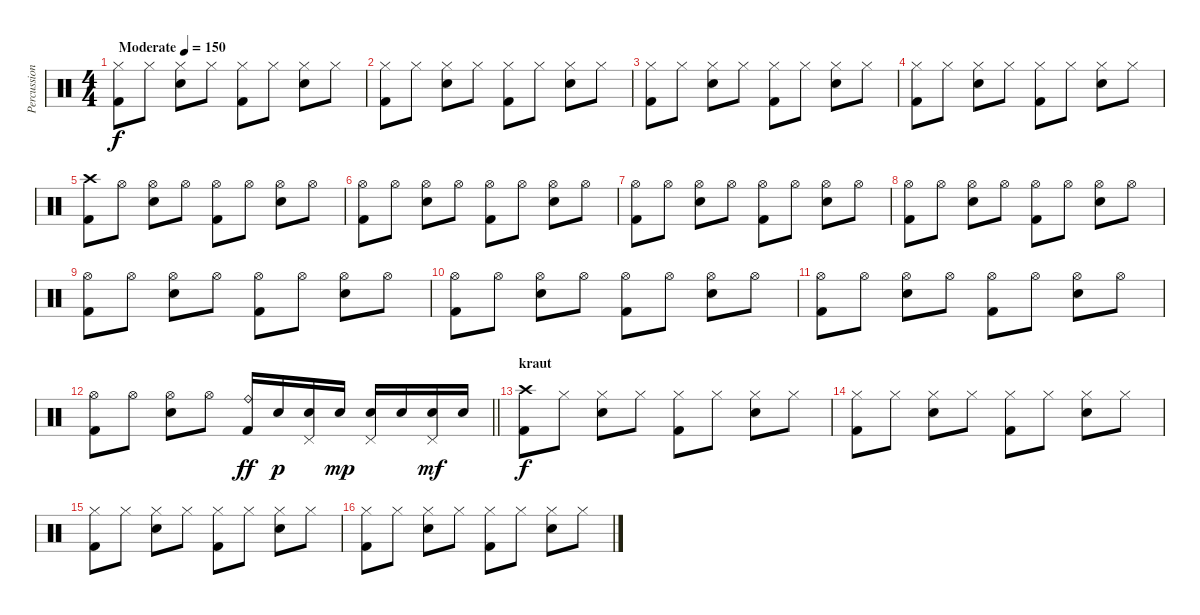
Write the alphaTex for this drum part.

\track ("Percussion" "Percussion") {instrument percussion}
\staff {score}
\articulation defaults
\ts (4 4)
\tempo (150 "Moderate")
\clef neutral
\ks c
("Hi-Hat (closed)" "Kick (hit) 2").8{dy f} "Hi-Hat (closed)".8 ("Hi-Hat (closed)" "Electric Snare (hit)").8 "Hi-Hat (closed)".8 ("Hi-Hat (closed)" "Kick (hit) 2").8 "Hi-Hat (closed)".8 ("Hi-Hat (closed)" "Electric Snare (hit)").8 "Hi-Hat (closed)".8 |
("Hi-Hat (closed)" "Kick (hit) 2").8 "Hi-Hat (closed)".8 ("Hi-Hat (closed)" "Electric Snare (hit)").8 "Hi-Hat (closed)".8 ("Hi-Hat (closed)" "Kick (hit) 2").8 "Hi-Hat (closed)".8 ("Hi-Hat (closed)" "Electric Snare (hit)").8 "Hi-Hat (closed)".8 |
("Hi-Hat (closed)" "Kick (hit) 2").8 "Hi-Hat (closed)".8 ("Hi-Hat (closed)" "Electric Snare (hit)").8 "Hi-Hat (closed)".8 ("Hi-Hat (closed)" "Kick (hit) 2").8 "Hi-Hat (closed)".8 ("Hi-Hat (closed)" "Electric Snare (hit)").8 "Hi-Hat (closed)".8 |
("Hi-Hat (closed)" "Kick (hit) 2").8 "Hi-Hat (closed)".8 ("Hi-Hat (closed)" "Electric Snare (hit)").8 "Hi-Hat (closed)".8 ("Hi-Hat (closed)" "Kick (hit) 2").8 "Hi-Hat (closed)".8 ("Hi-Hat (closed)" "Electric Snare (hit)").8 "Hi-Hat (closed)".8 |
("Crash high (hit)" "Kick (hit) 2").8 "Hi-Hat (open)".8 ("Hi-Hat (open)" "Electric Snare (hit)").8 "Hi-Hat (open)".8 ("Hi-Hat (open)" "Kick (hit) 2").8 "Hi-Hat (open)".8 ("Hi-Hat (open)" "Electric Snare (hit)").8 "Hi-Hat (open)".8 |
("Hi-Hat (open)" "Kick (hit) 2").8 "Hi-Hat (open)".8 ("Hi-Hat (open)" "Electric Snare (hit)").8 "Hi-Hat (open)".8 ("Hi-Hat (open)" "Kick (hit) 2").8 "Hi-Hat (open)".8 ("Hi-Hat (open)" "Electric Snare (hit)").8 "Hi-Hat (open)".8 |
("Hi-Hat (open)" "Kick (hit) 2").8 "Hi-Hat (open)".8 ("Hi-Hat (open)" "Electric Snare (hit)").8 "Hi-Hat (open)".8 ("Hi-Hat (open)" "Kick (hit) 2").8 "Hi-Hat (open)".8 ("Hi-Hat (open)" "Electric Snare (hit)").8 "Hi-Hat (open)".8 |
("Hi-Hat (open)" "Kick (hit) 2").8 "Hi-Hat (open)".8 ("Hi-Hat (open)" "Electric Snare (hit)").8 "Hi-Hat (open)".8 ("Hi-Hat (open)" "Kick (hit) 2").8 "Hi-Hat (open)".8 ("Hi-Hat (open)" "Electric Snare (hit)").8 "Hi-Hat (open)".8 |
("Hi-Hat (open)" "Kick (hit) 2").8 "Hi-Hat (open)".8 ("Hi-Hat (open)" "Electric Snare (hit)").8 "Hi-Hat (open)".8 ("Hi-Hat (open)" "Kick (hit) 2").8 "Hi-Hat (open)".8 ("Hi-Hat (open)" "Electric Snare (hit)").8 "Hi-Hat (open)".8 |
("Hi-Hat (open)" "Kick (hit) 2").8 "Hi-Hat (open)".8 ("Hi-Hat (open)" "Electric Snare (hit)").8 "Hi-Hat (open)".8 ("Hi-Hat (open)" "Kick (hit) 2").8 "Hi-Hat (open)".8 ("Hi-Hat (open)" "Electric Snare (hit)").8 "Hi-Hat (open)".8 |
("Hi-Hat (open)" "Kick (hit) 2").8 "Hi-Hat (open)".8 ("Hi-Hat (open)" "Electric Snare (hit)").8 "Hi-Hat (open)".8 ("Hi-Hat (open)" "Kick (hit) 2").8 "Hi-Hat (open)".8 ("Hi-Hat (open)" "Electric Snare (hit)").8 "Hi-Hat (open)".8 |
\barLineRight lightlight
("Hi-Hat (open)" "Kick (hit) 2").8 "Hi-Hat (open)".8 ("Hi-Hat (open)" "Electric Snare (hit)").8 "Hi-Hat (open)".8 ("Ride (bell)" "Kick (hit) 2").16{dy ff} "Electric Snare (hit)".16{dy p} ("Electric Snare (hit)" "Pedal Hi-Hat (hit)").16 "Electric Snare (hit)".16{dy mp} ("Electric Snare (hit)" "Pedal Hi-Hat (hit)").16 "Electric Snare (hit)".16 ("Electric Snare (hit)" "Pedal Hi-Hat (hit)").16{dy mf} "Electric Snare (hit)".16 |
\section ("" "kraut")
("Crash high (hit)" "Kick (hit) 2").8{dy f} "Hi-Hat (closed)".8 ("Hi-Hat (closed)" "Electric Snare (hit)").8 "Hi-Hat (closed)".8 ("Hi-Hat (closed)" "Kick (hit) 2").8 "Hi-Hat (closed)".8 ("Hi-Hat (closed)" "Electric Snare (hit)").8 "Hi-Hat (closed)".8 |
("Hi-Hat (closed)" "Kick (hit) 2").8 "Hi-Hat (closed)".8 ("Hi-Hat (closed)" "Electric Snare (hit)").8 "Hi-Hat (closed)".8 ("Hi-Hat (closed)" "Kick (hit) 2").8 "Hi-Hat (closed)".8 ("Hi-Hat (closed)" "Electric Snare (hit)").8 "Hi-Hat (closed)".8 |
("Hi-Hat (closed)" "Kick (hit) 2").8 "Hi-Hat (closed)".8 ("Hi-Hat (closed)" "Electric Snare (hit)").8 "Hi-Hat (closed)".8 ("Hi-Hat (closed)" "Kick (hit) 2").8 "Hi-Hat (closed)".8 ("Hi-Hat (closed)" "Electric Snare (hit)").8 "Hi-Hat (closed)".8 |
("Hi-Hat (closed)" "Kick (hit) 2").8 "Hi-Hat (closed)".8 ("Hi-Hat (closed)" "Electric Snare (hit)").8 "Hi-Hat (closed)".8 ("Hi-Hat (closed)" "Kick (hit) 2").8 "Hi-Hat (closed)".8 ("Hi-Hat (closed)" "Electric Snare (hit)").8 "Hi-Hat (closed)".8
